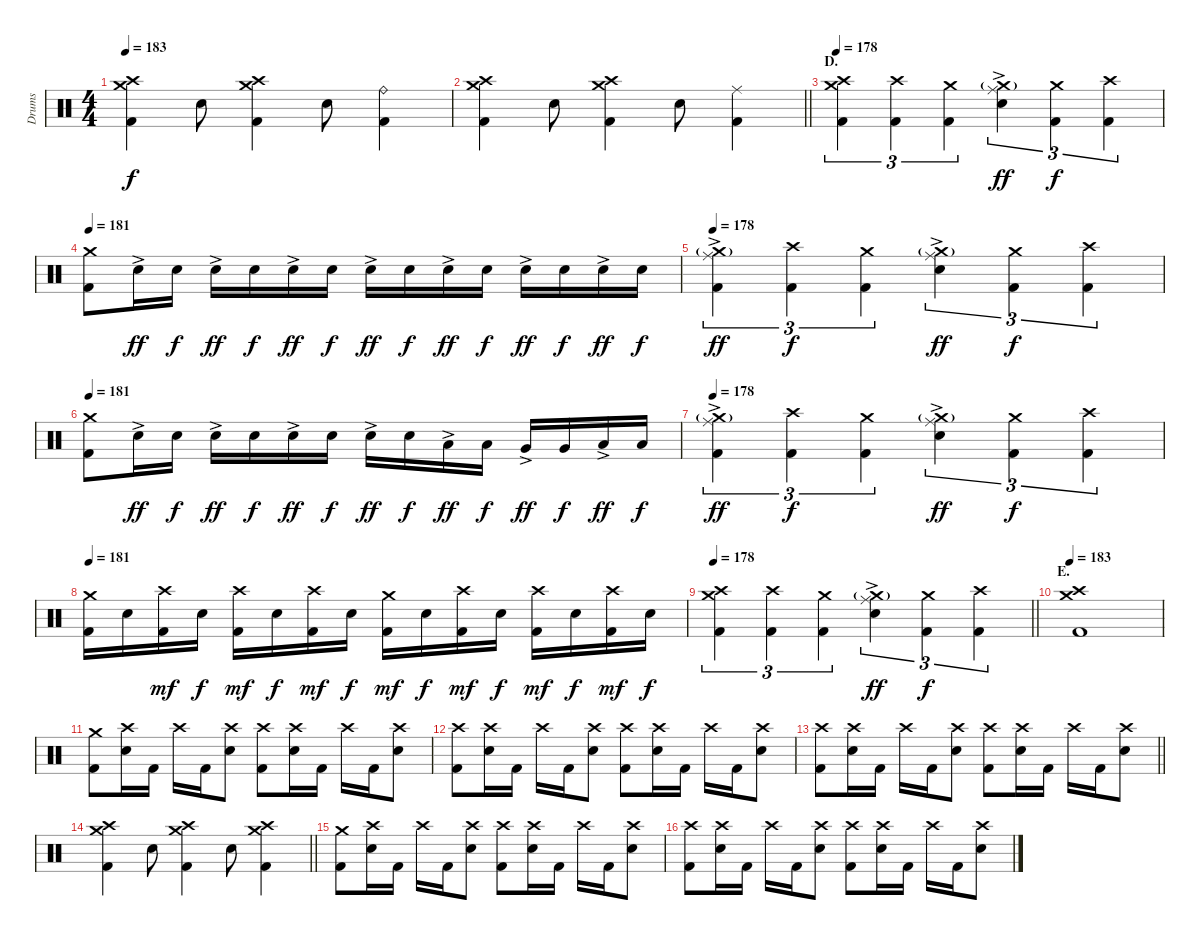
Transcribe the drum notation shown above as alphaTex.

\track ("Drums" "Drums") {instrument percussion}
\staff {score}
\articulation defaults
\ts (4 4)
\tempo 183
\clef neutral
\ks c
("Crash medium (hit)" "Crash high (hit)" "Kick (hit) 2").4{dy f} "Electric Snare (hit)".8 ("Crash medium (hit)" "Crash high (hit)" "Kick (hit) 2").4 "Electric Snare (hit)".8 ("Ride (bell)" "Kick (hit) 2").4 |
\barLineRight lightlight
("Crash medium (hit)" "Crash high (hit)" "Kick (hit) 2").4 "Electric Snare (hit)".8 ("Crash medium (hit)" "Crash high (hit)" "Kick (hit) 2").4 "Electric Snare (hit)".8 ("Ride (middle)" "Kick (hit) 2").4 |
\section ("" "D.")
\tempo 178
("Crash medium (hit)" "Crash high (hit)" "Kick (hit) 2").4{tu (3 2)} ("Crash high (hit)" "Kick (hit) 2").4{tu (3 2)} ("Crash medium (hit)" "Kick (hit) 2").4{tu (3 2)} ("Crash medium (hit)"{g} "Ride (middle)"{ac} "Electric Snare (hit)").4{tu (3 2) dy ff} ("Crash medium (hit)" "Kick (hit) 2").4{tu (3 2) dy f} ("Crash high (hit)" "Kick (hit) 2").4{tu (3 2)} |
\tempo 181
("Crash medium (hit)" "Kick (hit) 2").8 "Electric Snare (hit)"{ac}.16{dy ff} "Electric Snare (hit)".16{dy f} "Electric Snare (hit)"{ac}.16{dy ff} "Electric Snare (hit)".16{dy f} "Electric Snare (hit)"{ac}.16{dy ff} "Electric Snare (hit)".16{dy f} "Electric Snare (hit)"{ac}.16{dy ff} "Electric Snare (hit)".16{dy f} "Electric Snare (hit)"{ac}.16{dy ff} "Electric Snare (hit)".16{dy f} "Electric Snare (hit)"{ac}.16{dy ff} "Electric Snare (hit)".16{dy f} "Electric Snare (hit)"{ac}.16{dy ff} "Electric Snare (hit)".16{dy f} |
\tempo 178
("Crash medium (hit)"{g} "Ride (middle)"{ac} "Kick (hit) 2").4{tu (3 2) dy ff} ("Crash high (hit)" "Kick (hit) 2").4{tu (3 2) dy f} ("Crash medium (hit)" "Kick (hit) 2").4{tu (3 2)} ("Crash medium (hit)"{g} "Ride (middle)"{ac} "Electric Snare (hit)").4{tu (3 2) dy ff} ("Crash medium (hit)" "Kick (hit) 2").4{tu (3 2) dy f} ("Crash high (hit)" "Kick (hit) 2").4{tu (3 2)} |
\tempo 181
("Crash medium (hit)" "Kick (hit) 2").8 "Electric Snare (hit)"{ac}.16{dy ff} "Electric Snare (hit)".16{dy f} "Electric Snare (hit)"{ac}.16{dy ff} "Electric Snare (hit)".16{dy f} "Electric Snare (hit)"{ac}.16{dy ff} "Electric Snare (hit)".16{dy f} "Electric Snare (hit)"{ac}.16{dy ff} "Electric Snare (hit)".16{dy f} "Low Tom (hit)"{ac}.16{dy ff} "Low Tom (hit)".16{dy f} "Very Low Tom (hit)"{ac}.16{dy ff} "Very Low Tom (hit)".16{dy f} "Low Floor Tom (hit)"{ac}.16{dy ff} "Low Floor Tom (hit)".16{dy f} |
\tempo 178
("Crash medium (hit)"{g} "Ride (middle)"{ac} "Kick (hit) 2").4{tu (3 2) dy ff} ("Crash high (hit)" "Kick (hit) 2").4{tu (3 2) dy f} ("Crash medium (hit)" "Kick (hit) 2").4{tu (3 2)} ("Crash medium (hit)"{g} "Ride (middle)"{ac} "Electric Snare (hit)").4{tu (3 2) dy ff} ("Crash medium (hit)" "Kick (hit) 2").4{tu (3 2) dy f} ("Crash high (hit)" "Kick (hit) 2").4{tu (3 2)} |
\tempo 181
("Crash medium (hit)" "Kick (hit) 2").16 "Electric Snare (hit)".16 ("Crash high (hit)" "Kick (hit) 2").16{dy mf} "Electric Snare (hit)".16{dy f} ("Crash high (hit)" "Kick (hit) 2").16{dy mf} "Electric Snare (hit)".16{dy f} ("Crash high (hit)" "Kick (hit) 2").16{dy mf} "Electric Snare (hit)".16{dy f} ("Crash medium (hit)" "Kick (hit) 2").16{dy mf} "Electric Snare (hit)".16{dy f} ("Crash high (hit)" "Kick (hit) 2").16{dy mf} "Electric Snare (hit)".16{dy f} ("Crash high (hit)" "Kick (hit) 2").16{dy mf} "Electric Snare (hit)".16{dy f} ("Crash high (hit)" "Kick (hit) 2").16{dy mf} "Electric Snare (hit)".16{dy f} |
\tempo 178
\barLineRight lightlight
("Crash medium (hit)" "Crash high (hit)" "Kick (hit) 2").4{tu (3 2)} ("Crash high (hit)" "Kick (hit) 2").4{tu (3 2)} ("Crash medium (hit)" "Kick (hit) 2").4{tu (3 2)} ("Crash medium (hit)"{g} "Ride (middle)"{ac} "Electric Snare (hit)").4{tu (3 2) dy ff} ("Crash medium (hit)" "Kick (hit) 2").4{tu (3 2) dy f} ("Crash high (hit)" "Kick (hit) 2").4{tu (3 2)} |
\section ("" "E.")
\tempo 183
("Crash medium (hit)" "Crash high (hit)" "Kick (hit) 2").1 |
("Crash medium (hit)" "Kick (hit) 2").8 ("Crash high (hit)" "Electric Snare (hit)").16 "Kick (hit) 2".16 "Crash high (hit)".16 "Kick (hit) 2".16 ("Crash high (hit)" "Electric Snare (hit)").8 ("Crash high (hit)" "Kick (hit) 2").8 ("Crash high (hit)" "Electric Snare (hit)").16 "Kick (hit) 2".16 "Crash high (hit)".16 "Kick (hit) 2".16 ("Crash high (hit)" "Electric Snare (hit)").8 |
("Crash high (hit)" "Kick (hit) 2").8 ("Crash high (hit)" "Electric Snare (hit)").16 "Kick (hit) 2".16 "Crash high (hit)".16 "Kick (hit) 2".16 ("Crash high (hit)" "Electric Snare (hit)").8 ("Crash high (hit)" "Kick (hit) 2").8 ("Crash high (hit)" "Electric Snare (hit)").16 "Kick (hit) 2".16 "Crash high (hit)".16 "Kick (hit) 2".16 ("Crash high (hit)" "Electric Snare (hit)").8 |
\barLineRight lightlight
("Crash high (hit)" "Kick (hit) 2").8 ("Crash high (hit)" "Electric Snare (hit)").16 "Kick (hit) 2".16 "Crash high (hit)".16 "Kick (hit) 2".16 ("Crash high (hit)" "Electric Snare (hit)").8 ("Crash high (hit)" "Kick (hit) 2").8 ("Crash high (hit)" "Electric Snare (hit)").16 "Kick (hit) 2".16 "Crash high (hit)".16 "Kick (hit) 2".16 ("Crash high (hit)" "Electric Snare (hit)").8 |
\barLineRight lightlight
("Crash medium (hit)" "Crash high (hit)" "Kick (hit) 2").4 "Electric Snare (hit)".8 ("Crash medium (hit)" "Crash high (hit)" "Kick (hit) 2").4 "Electric Snare (hit)".8 ("Crash medium (hit)" "Crash high (hit)" "Kick (hit) 2").4 |
("Crash medium (hit)" "Kick (hit) 2").8 ("Crash high (hit)" "Electric Snare (hit)").16 "Kick (hit) 2".16 "Crash high (hit)".16 "Kick (hit) 2".16 ("Crash high (hit)" "Electric Snare (hit)").8 ("Crash high (hit)" "Kick (hit) 2").8 ("Crash high (hit)" "Electric Snare (hit)").16 "Kick (hit) 2".16 "Crash high (hit)".16 "Kick (hit) 2".16 ("Crash high (hit)" "Electric Snare (hit)").8 |
("Crash high (hit)" "Kick (hit) 2").8 ("Crash high (hit)" "Electric Snare (hit)").16 "Kick (hit) 2".16 "Crash high (hit)".16 "Kick (hit) 2".16 ("Crash high (hit)" "Electric Snare (hit)").8 ("Crash high (hit)" "Kick (hit) 2").8 ("Crash high (hit)" "Electric Snare (hit)").16 "Kick (hit) 2".16 "Crash high (hit)".16 "Kick (hit) 2".16 ("Crash high (hit)" "Electric Snare (hit)").8
